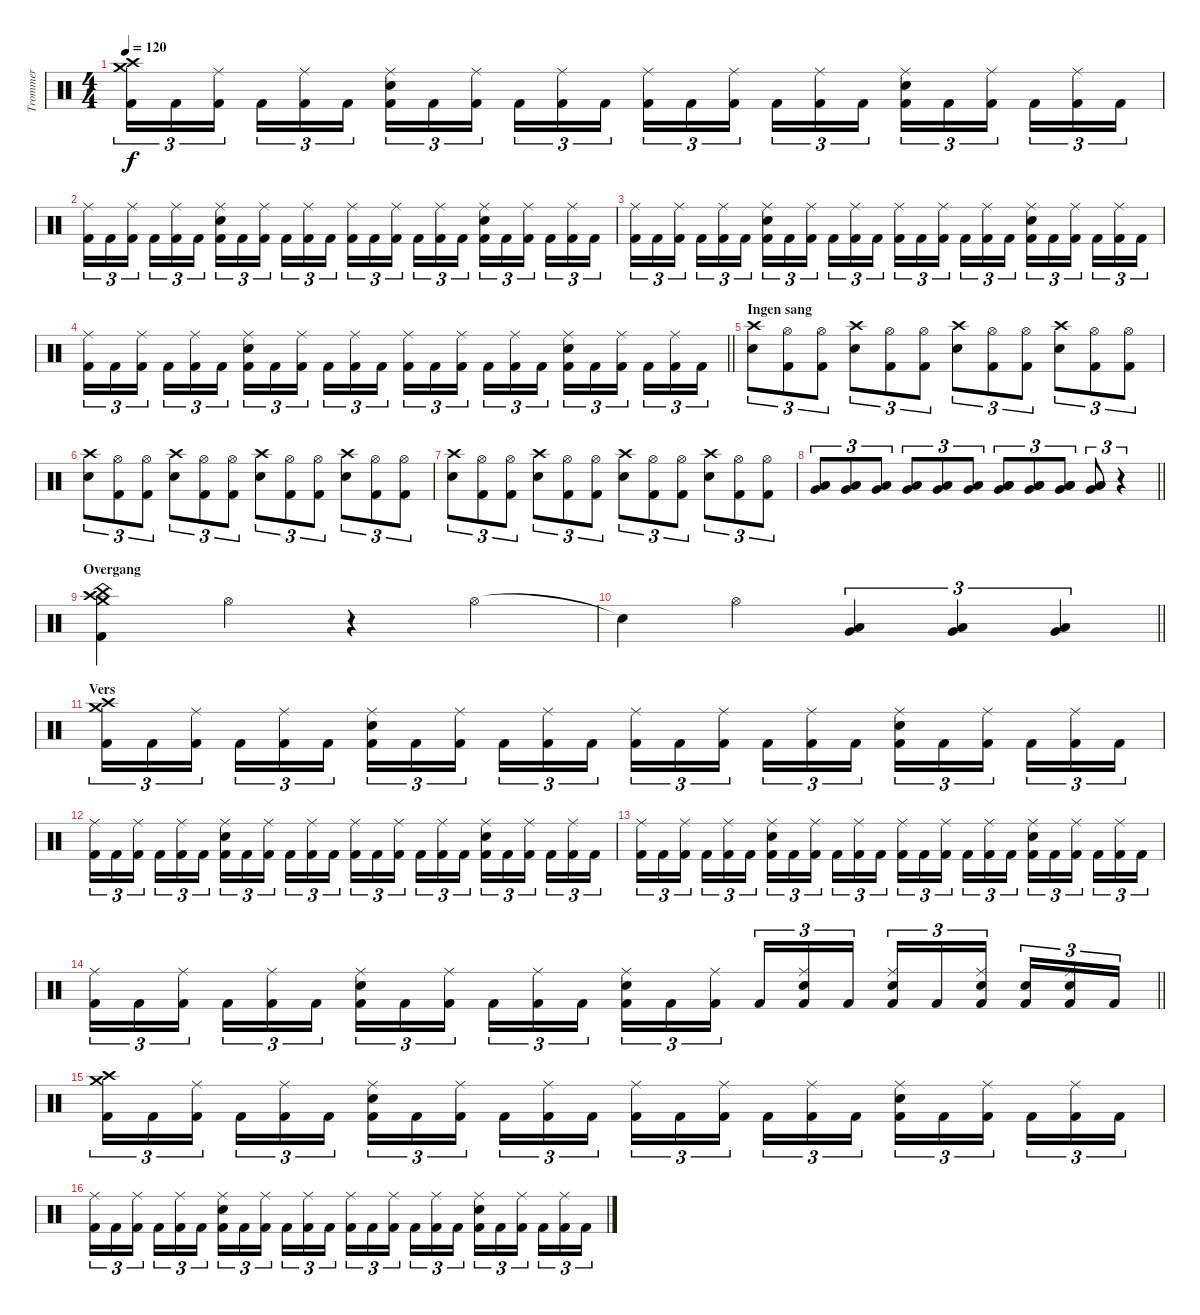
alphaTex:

\track ("Trommer" "Trommer") {instrument percussion}
\staff {score}
\articulation defaults
\ts (4 4)
\tempo 120
\clef neutral
\ks c
("Crash medium (hit)" "Crash high (hit)" "Kick (hit) 2").16{tu (3 2) dy f} "Kick (hit) 2".16{tu (3 2)} ("Ride (middle)" "Kick (hit) 2").16{tu (3 2) beam splitsecondary} "Kick (hit) 2".16{tu (3 2)} ("Ride (middle)" "Kick (hit) 2").16{tu (3 2)} "Kick (hit) 2".16{tu (3 2)} ("Ride (middle)" "Snare (hit) 2" "Kick (hit) 2").16{tu (3 2)} "Kick (hit) 2".16{tu (3 2)} ("Ride (middle)" "Kick (hit) 2").16{tu (3 2) beam splitsecondary} "Kick (hit) 2".16{tu (3 2)} ("Ride (middle)" "Kick (hit) 2").16{tu (3 2)} "Kick (hit) 2".16{tu (3 2)} ("Ride (middle)" "Kick (hit) 2").16{tu (3 2)} "Kick (hit) 2".16{tu (3 2)} ("Ride (middle)" "Kick (hit) 2").16{tu (3 2) beam splitsecondary} "Kick (hit) 2".16{tu (3 2)} ("Ride (middle)" "Kick (hit) 2").16{tu (3 2)} "Kick (hit) 2".16{tu (3 2)} ("Ride (middle)" "Snare (hit) 2" "Kick (hit) 2").16{tu (3 2)} "Kick (hit) 2".16{tu (3 2)} ("Ride (middle)" "Kick (hit) 2").16{tu (3 2) beam splitsecondary} "Kick (hit) 2".16{tu (3 2)} ("Ride (middle)" "Kick (hit) 2").16{tu (3 2)} "Kick (hit) 2".16{tu (3 2)} |
("Ride (middle)" "Kick (hit) 2").16{tu (3 2)} "Kick (hit) 2".16{tu (3 2)} ("Ride (middle)" "Kick (hit) 2").16{tu (3 2) beam splitsecondary} "Kick (hit) 2".16{tu (3 2)} ("Ride (middle)" "Kick (hit) 2").16{tu (3 2)} "Kick (hit) 2".16{tu (3 2)} ("Ride (middle)" "Snare (hit) 2" "Kick (hit) 2").16{tu (3 2)} "Kick (hit) 2".16{tu (3 2)} ("Ride (middle)" "Kick (hit) 2").16{tu (3 2) beam splitsecondary} "Kick (hit) 2".16{tu (3 2)} ("Ride (middle)" "Kick (hit) 2").16{tu (3 2)} "Kick (hit) 2".16{tu (3 2)} ("Ride (middle)" "Kick (hit) 2").16{tu (3 2)} "Kick (hit) 2".16{tu (3 2)} ("Ride (middle)" "Kick (hit) 2").16{tu (3 2) beam splitsecondary} "Kick (hit) 2".16{tu (3 2)} ("Ride (middle)" "Kick (hit) 2").16{tu (3 2)} "Kick (hit) 2".16{tu (3 2)} ("Ride (middle)" "Snare (hit) 2" "Kick (hit) 2").16{tu (3 2)} "Kick (hit) 2".16{tu (3 2)} ("Ride (middle)" "Kick (hit) 2").16{tu (3 2) beam splitsecondary} "Kick (hit) 2".16{tu (3 2)} ("Ride (middle)" "Kick (hit) 2").16{tu (3 2)} "Kick (hit) 2".16{tu (3 2)} |
("Ride (middle)" "Kick (hit) 2").16{tu (3 2)} "Kick (hit) 2".16{tu (3 2)} ("Ride (middle)" "Kick (hit) 2").16{tu (3 2) beam splitsecondary} "Kick (hit) 2".16{tu (3 2)} ("Ride (middle)" "Kick (hit) 2").16{tu (3 2)} "Kick (hit) 2".16{tu (3 2)} ("Ride (middle)" "Snare (hit) 2" "Kick (hit) 2").16{tu (3 2)} "Kick (hit) 2".16{tu (3 2)} ("Ride (middle)" "Kick (hit) 2").16{tu (3 2) beam splitsecondary} "Kick (hit) 2".16{tu (3 2)} ("Ride (middle)" "Kick (hit) 2").16{tu (3 2)} "Kick (hit) 2".16{tu (3 2)} ("Ride (middle)" "Kick (hit) 2").16{tu (3 2)} "Kick (hit) 2".16{tu (3 2)} ("Ride (middle)" "Kick (hit) 2").16{tu (3 2) beam splitsecondary} "Kick (hit) 2".16{tu (3 2)} ("Ride (middle)" "Kick (hit) 2").16{tu (3 2)} "Kick (hit) 2".16{tu (3 2)} ("Ride (middle)" "Snare (hit) 2" "Kick (hit) 2").16{tu (3 2)} "Kick (hit) 2".16{tu (3 2)} ("Ride (middle)" "Kick (hit) 2").16{tu (3 2) beam splitsecondary} "Kick (hit) 2".16{tu (3 2)} ("Ride (middle)" "Kick (hit) 2").16{tu (3 2)} "Kick (hit) 2".16{tu (3 2)} |
\barLineRight lightlight
("Ride (middle)" "Kick (hit) 2").16{tu (3 2)} "Kick (hit) 2".16{tu (3 2)} ("Ride (middle)" "Kick (hit) 2").16{tu (3 2) beam splitsecondary} "Kick (hit) 2".16{tu (3 2)} ("Ride (middle)" "Kick (hit) 2").16{tu (3 2)} "Kick (hit) 2".16{tu (3 2)} ("Ride (middle)" "Snare (hit) 2" "Kick (hit) 2").16{tu (3 2)} "Kick (hit) 2".16{tu (3 2)} ("Ride (middle)" "Kick (hit) 2").16{tu (3 2) beam splitsecondary} "Kick (hit) 2".16{tu (3 2)} ("Ride (middle)" "Kick (hit) 2").16{tu (3 2)} "Kick (hit) 2".16{tu (3 2)} ("Ride (middle)" "Kick (hit) 2").16{tu (3 2)} "Kick (hit) 2".16{tu (3 2)} ("Ride (middle)" "Kick (hit) 2").16{tu (3 2) beam splitsecondary} "Kick (hit) 2".16{tu (3 2)} ("Ride (middle)" "Kick (hit) 2").16{tu (3 2)} "Kick (hit) 2".16{tu (3 2)} ("Ride (middle)" "Snare (hit) 2" "Kick (hit) 2").16{tu (3 2)} "Kick (hit) 2".16{tu (3 2)} ("Ride (middle)" "Kick (hit) 2").16{tu (3 2) beam splitsecondary} "Kick (hit) 2".16{tu (3 2)} ("Ride (middle)" "Kick (hit) 2").16{tu (3 2)} "Kick (hit) 2".16{tu (3 2)} |
\section ("" "Ingen sang")
("Crash high (hit)" "Snare (hit) 2").8{tu (3 2)} ("Hi-Hat (open)" "Kick (hit) 2").8{tu (3 2)} ("Hi-Hat (open)" "Kick (hit) 2").8{tu (3 2)} ("Crash high (hit)" "Snare (hit) 2").8{tu (3 2)} ("Hi-Hat (open)" "Kick (hit) 2").8{tu (3 2)} ("Hi-Hat (open)" "Kick (hit) 2").8{tu (3 2)} ("Crash high (hit)" "Snare (hit) 2").8{tu (3 2)} ("Hi-Hat (open)" "Kick (hit) 2").8{tu (3 2)} ("Hi-Hat (open)" "Kick (hit) 2").8{tu (3 2)} ("Crash high (hit)" "Snare (hit) 2").8{tu (3 2)} ("Hi-Hat (open)" "Kick (hit) 2").8{tu (3 2)} ("Hi-Hat (open)" "Kick (hit) 2").8{tu (3 2)} |
("Crash high (hit)" "Snare (hit) 2").8{tu (3 2)} ("Hi-Hat (open)" "Kick (hit) 2").8{tu (3 2)} ("Hi-Hat (open)" "Kick (hit) 2").8{tu (3 2)} ("Crash high (hit)" "Snare (hit) 2").8{tu (3 2)} ("Hi-Hat (open)" "Kick (hit) 2").8{tu (3 2)} ("Hi-Hat (open)" "Kick (hit) 2").8{tu (3 2)} ("Crash high (hit)" "Snare (hit) 2").8{tu (3 2)} ("Hi-Hat (open)" "Kick (hit) 2").8{tu (3 2)} ("Hi-Hat (open)" "Kick (hit) 2").8{tu (3 2)} ("Crash high (hit)" "Snare (hit) 2").8{tu (3 2)} ("Hi-Hat (open)" "Kick (hit) 2").8{tu (3 2)} ("Hi-Hat (open)" "Kick (hit) 2").8{tu (3 2)} |
("Crash high (hit)" "Snare (hit) 2").8{tu (3 2)} ("Hi-Hat (open)" "Kick (hit) 2").8{tu (3 2)} ("Hi-Hat (open)" "Kick (hit) 2").8{tu (3 2)} ("Crash high (hit)" "Snare (hit) 2").8{tu (3 2)} ("Hi-Hat (open)" "Kick (hit) 2").8{tu (3 2)} ("Hi-Hat (open)" "Kick (hit) 2").8{tu (3 2)} ("Crash high (hit)" "Snare (hit) 2").8{tu (3 2)} ("Hi-Hat (open)" "Kick (hit) 2").8{tu (3 2)} ("Hi-Hat (open)" "Kick (hit) 2").8{tu (3 2)} ("Crash high (hit)" "Snare (hit) 2").8{tu (3 2)} ("Hi-Hat (open)" "Kick (hit) 2").8{tu (3 2)} ("Hi-Hat (open)" "Kick (hit) 2").8{tu (3 2)} |
\barLineRight lightlight
("Very Low Tom (hit)" "Low Tom (hit)").8{tu (3 2)} ("Very Low Tom (hit)" "Low Tom (hit)").8{tu (3 2)} ("Very Low Tom (hit)" "Low Tom (hit)").8{tu (3 2)} ("Very Low Tom (hit)" "Low Tom (hit)").8{tu (3 2)} ("Very Low Tom (hit)" "Low Tom (hit)").8{tu (3 2)} ("Very Low Tom (hit)" "Low Tom (hit)").8{tu (3 2)} ("Low Tom (hit)" "Low Floor Tom (hit)" "Very Low Tom (hit)").8{tu (3 2)} ("Low Tom (hit)" "Low Floor Tom (hit)" "Very Low Tom (hit)").8{tu (3 2)} ("Low Tom (hit)" "Low Floor Tom (hit)" "Very Low Tom (hit)").8{tu (3 2)} ("Low Tom (hit)" "Low Floor Tom (hit)" "Very Low Tom (hit)").8{tu (3 2)} r.4{tu (3 2)} |
\section ("" "Overgang")
("Crash medium (hit)" "Crash high (hit)" "China (hit)" "Kick (hit) 2").4 "Hi-Hat (open)".4 r.4 "Hi-Hat (open)".4 |
\barLineRight lightlight "Snare (hit)"{t}.4 "Hi-Hat (open)".4
("Low Tom (hit)" "Very Low Tom (hit)").4{tu (3 2)} ("Low Tom (hit)" "Very Low Tom (hit)").4{tu (3 2)} ("Low Tom (hit)" "Very Low Tom (hit)").4{tu (3 2)} |
\section ("" "Vers ")
("Crash medium (hit)" "Crash high (hit)" "Kick (hit) 2").16{tu (3 2)} "Kick (hit) 2".16{tu (3 2)} ("Ride (middle)" "Kick (hit) 2").16{tu (3 2) beam splitsecondary} "Kick (hit) 2".16{tu (3 2)} ("Ride (middle)" "Kick (hit) 2").16{tu (3 2)} "Kick (hit) 2".16{tu (3 2)} ("Ride (middle)" "Snare (hit) 2" "Kick (hit) 2").16{tu (3 2)} "Kick (hit) 2".16{tu (3 2)} ("Ride (middle)" "Kick (hit) 2").16{tu (3 2) beam splitsecondary} "Kick (hit) 2".16{tu (3 2)} ("Ride (middle)" "Kick (hit) 2").16{tu (3 2)} "Kick (hit) 2".16{tu (3 2)} ("Ride (middle)" "Kick (hit) 2").16{tu (3 2)} "Kick (hit) 2".16{tu (3 2)} ("Ride (middle)" "Kick (hit) 2").16{tu (3 2) beam splitsecondary} "Kick (hit) 2".16{tu (3 2)} ("Ride (middle)" "Kick (hit) 2").16{tu (3 2)} "Kick (hit) 2".16{tu (3 2)} ("Ride (middle)" "Snare (hit) 2" "Kick (hit) 2").16{tu (3 2)} "Kick (hit) 2".16{tu (3 2)} ("Ride (middle)" "Kick (hit) 2").16{tu (3 2) beam splitsecondary} "Kick (hit) 2".16{tu (3 2)} ("Ride (middle)" "Kick (hit) 2").16{tu (3 2)} "Kick (hit) 2".16{tu (3 2)} |
("Ride (middle)" "Kick (hit) 2").16{tu (3 2)} "Kick (hit) 2".16{tu (3 2)} ("Ride (middle)" "Kick (hit) 2").16{tu (3 2) beam splitsecondary} "Kick (hit) 2".16{tu (3 2)} ("Ride (middle)" "Kick (hit) 2").16{tu (3 2)} "Kick (hit) 2".16{tu (3 2)} ("Ride (middle)" "Snare (hit) 2" "Kick (hit) 2").16{tu (3 2)} "Kick (hit) 2".16{tu (3 2)} ("Ride (middle)" "Kick (hit) 2").16{tu (3 2) beam splitsecondary} "Kick (hit) 2".16{tu (3 2)} ("Ride (middle)" "Kick (hit) 2").16{tu (3 2)} "Kick (hit) 2".16{tu (3 2)} ("Ride (middle)" "Kick (hit) 2").16{tu (3 2)} "Kick (hit) 2".16{tu (3 2)} ("Ride (middle)" "Kick (hit) 2").16{tu (3 2) beam splitsecondary} "Kick (hit) 2".16{tu (3 2)} ("Ride (middle)" "Kick (hit) 2").16{tu (3 2)} "Kick (hit) 2".16{tu (3 2)} ("Ride (middle)" "Snare (hit) 2" "Kick (hit) 2").16{tu (3 2)} "Kick (hit) 2".16{tu (3 2)} ("Ride (middle)" "Kick (hit) 2").16{tu (3 2) beam splitsecondary} "Kick (hit) 2".16{tu (3 2)} ("Ride (middle)" "Kick (hit) 2").16{tu (3 2)} "Kick (hit) 2".16{tu (3 2)} |
("Ride (middle)" "Kick (hit) 2").16{tu (3 2)} "Kick (hit) 2".16{tu (3 2)} ("Ride (middle)" "Kick (hit) 2").16{tu (3 2) beam splitsecondary} "Kick (hit) 2".16{tu (3 2)} ("Ride (middle)" "Kick (hit) 2").16{tu (3 2)} "Kick (hit) 2".16{tu (3 2)} ("Ride (middle)" "Snare (hit) 2" "Kick (hit) 2").16{tu (3 2)} "Kick (hit) 2".16{tu (3 2)} ("Ride (middle)" "Kick (hit) 2").16{tu (3 2) beam splitsecondary} "Kick (hit) 2".16{tu (3 2)} ("Ride (middle)" "Kick (hit) 2").16{tu (3 2)} "Kick (hit) 2".16{tu (3 2)} ("Ride (middle)" "Kick (hit) 2").16{tu (3 2)} "Kick (hit) 2".16{tu (3 2)} ("Ride (middle)" "Kick (hit) 2").16{tu (3 2) beam splitsecondary} "Kick (hit) 2".16{tu (3 2)} ("Ride (middle)" "Kick (hit) 2").16{tu (3 2)} "Kick (hit) 2".16{tu (3 2)} ("Ride (middle)" "Snare (hit) 2" "Kick (hit) 2").16{tu (3 2)} "Kick (hit) 2".16{tu (3 2)} ("Ride (middle)" "Kick (hit) 2").16{tu (3 2) beam splitsecondary} "Kick (hit) 2".16{tu (3 2)} ("Ride (middle)" "Kick (hit) 2").16{tu (3 2)} "Kick (hit) 2".16{tu (3 2)} |
\barLineRight lightlight
("Ride (middle)" "Kick (hit) 2").16{tu (3 2)} "Kick (hit) 2".16{tu (3 2)} ("Ride (middle)" "Kick (hit) 2").16{tu (3 2) beam splitsecondary} "Kick (hit) 2".16{tu (3 2)} ("Ride (middle)" "Kick (hit) 2").16{tu (3 2)} "Kick (hit) 2".16{tu (3 2)} ("Ride (middle)" "Snare (hit) 2" "Kick (hit) 2").16{tu (3 2)} "Kick (hit) 2".16{tu (3 2)} ("Ride (middle)" "Kick (hit) 2").16{tu (3 2) beam splitsecondary} "Kick (hit) 2".16{tu (3 2)} ("Ride (middle)" "Kick (hit) 2").16{tu (3 2)} "Kick (hit) 2".16{tu (3 2)} ("Ride (middle)" "Snare (hit) 2" "Kick (hit) 2").16{tu (3 2)} "Kick (hit) 2".16{tu (3 2)} ("Ride (middle)" "Kick (hit) 2").16{tu (3 2) beam splitsecondary} "Kick (hit) 2".16{tu (3 2)} ("Ride (middle)" "Snare (hit) 2" "Kick (hit) 2").16{tu (3 2)} "Kick (hit) 2".16{tu (3 2)} ("Ride (middle)" "Snare (hit) 2" "Kick (hit) 2").16{tu (3 2)} "Kick (hit) 2".16{tu (3 2)} ("Ride (middle)" "Snare (hit) 2" "Kick (hit) 2").16{tu (3 2) beam splitsecondary} ("Snare (hit) 2" "Kick (hit) 2").16{tu (3 2)} ("Ride (middle)" "Snare (hit) 2" "Kick (hit) 2").16{tu (3 2)} "Kick (hit) 2".16{tu (3 2)} |
("Crash medium (hit)" "Crash high (hit)" "Kick (hit) 2").16{tu (3 2)} "Kick (hit) 2".16{tu (3 2)} ("Ride (middle)" "Kick (hit) 2").16{tu (3 2) beam splitsecondary} "Kick (hit) 2".16{tu (3 2)} ("Ride (middle)" "Kick (hit) 2").16{tu (3 2)} "Kick (hit) 2".16{tu (3 2)} ("Ride (middle)" "Snare (hit) 2" "Kick (hit) 2").16{tu (3 2)} "Kick (hit) 2".16{tu (3 2)} ("Ride (middle)" "Kick (hit) 2").16{tu (3 2) beam splitsecondary} "Kick (hit) 2".16{tu (3 2)} ("Ride (middle)" "Kick (hit) 2").16{tu (3 2)} "Kick (hit) 2".16{tu (3 2)} ("Ride (middle)" "Kick (hit) 2").16{tu (3 2)} "Kick (hit) 2".16{tu (3 2)} ("Ride (middle)" "Kick (hit) 2").16{tu (3 2) beam splitsecondary} "Kick (hit) 2".16{tu (3 2)} ("Ride (middle)" "Kick (hit) 2").16{tu (3 2)} "Kick (hit) 2".16{tu (3 2)} ("Ride (middle)" "Snare (hit) 2" "Kick (hit) 2").16{tu (3 2)} "Kick (hit) 2".16{tu (3 2)} ("Ride (middle)" "Kick (hit) 2").16{tu (3 2) beam splitsecondary} "Kick (hit) 2".16{tu (3 2)} ("Ride (middle)" "Kick (hit) 2").16{tu (3 2)} "Kick (hit) 2".16{tu (3 2)} |
("Ride (middle)" "Kick (hit) 2").16{tu (3 2)} "Kick (hit) 2".16{tu (3 2)} ("Ride (middle)" "Kick (hit) 2").16{tu (3 2) beam splitsecondary} "Kick (hit) 2".16{tu (3 2)} ("Ride (middle)" "Kick (hit) 2").16{tu (3 2)} "Kick (hit) 2".16{tu (3 2)} ("Ride (middle)" "Snare (hit) 2" "Kick (hit) 2").16{tu (3 2)} "Kick (hit) 2".16{tu (3 2)} ("Ride (middle)" "Kick (hit) 2").16{tu (3 2) beam splitsecondary} "Kick (hit) 2".16{tu (3 2)} ("Ride (middle)" "Kick (hit) 2").16{tu (3 2)} "Kick (hit) 2".16{tu (3 2)} ("Ride (middle)" "Kick (hit) 2").16{tu (3 2)} "Kick (hit) 2".16{tu (3 2)} ("Ride (middle)" "Kick (hit) 2").16{tu (3 2) beam splitsecondary} "Kick (hit) 2".16{tu (3 2)} ("Ride (middle)" "Kick (hit) 2").16{tu (3 2)} "Kick (hit) 2".16{tu (3 2)} ("Ride (middle)" "Snare (hit) 2" "Kick (hit) 2").16{tu (3 2)} "Kick (hit) 2".16{tu (3 2)} ("Ride (middle)" "Kick (hit) 2").16{tu (3 2) beam splitsecondary} "Kick (hit) 2".16{tu (3 2)} ("Ride (middle)" "Kick (hit) 2").16{tu (3 2)} "Kick (hit) 2".16{tu (3 2)}
